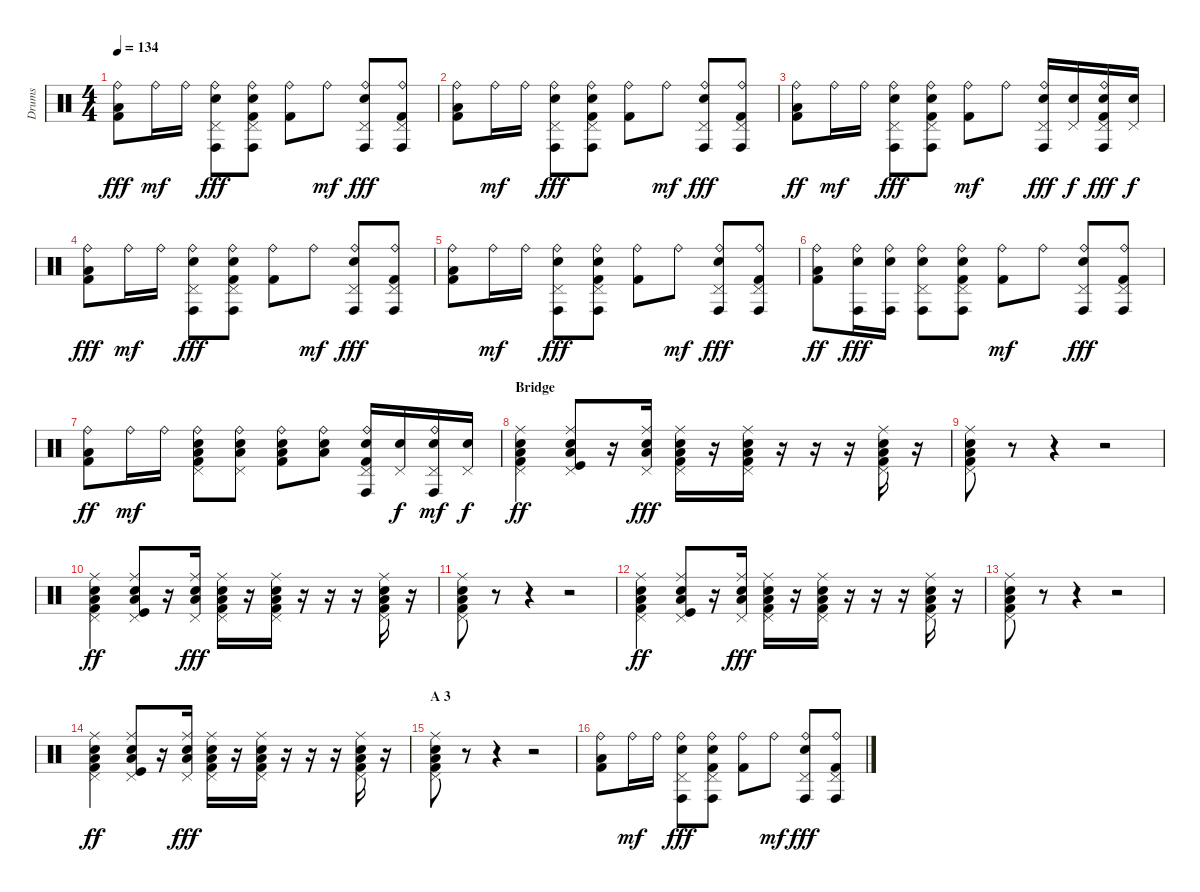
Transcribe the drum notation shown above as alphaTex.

\track ("Drums" "Drums") {instrument percussion}
\staff {score}
\articulation defaults
\ts (4 4)
\tempo 134
\clef neutral
\ks c
("Ride (bell)" "Low Tom (hit)" "Kick (hit) 2").8{dy fff} "Ride (bell)".16{dy mf} "Ride (bell)".16 ("Ride (bell)" "Pedal Hi-Hat (hit)" "Conga high (hit)" "Electric Snare (hit)").8{dy fff} ("Ride (bell)" "Pedal Hi-Hat (hit)" "Conga high (hit)" "Electric Snare (hit)" "Kick (hit) 2").8 ("Ride (bell)" "Kick (hit) 2").8 "Ride (bell)".8{dy mf} ("Ride (bell)" "Pedal Hi-Hat (hit)" "Conga high (hit)" "Electric Snare (hit)").8{dy fff} ("Ride (bell)" "Pedal Hi-Hat (hit)" "Conga high (hit)" "Kick (hit) 2").8 |
("Ride (bell)" "Low Tom (hit)" "Kick (hit) 2").8 "Ride (bell)".16{dy mf} "Ride (bell)".16 ("Ride (bell)" "Pedal Hi-Hat (hit)" "Conga high (hit)" "Electric Snare (hit)").8{dy fff} ("Ride (bell)" "Pedal Hi-Hat (hit)" "Conga high (hit)" "Electric Snare (hit)" "Kick (hit) 2").8 ("Ride (bell)" "Kick (hit) 2").8 "Ride (bell)".8{dy mf} ("Ride (bell)" "Pedal Hi-Hat (hit)" "Conga high (hit)" "Electric Snare (hit)").8{dy fff} ("Ride (bell)" "Pedal Hi-Hat (hit)" "Conga high (hit)" "Kick (hit) 2").8 |
("Ride (bell)" "Low Tom (hit)" "Kick (hit) 2").8{dy ff} "Ride (bell)".16{dy mf} "Ride (bell)".16 ("Ride (bell)" "Pedal Hi-Hat (hit)" "Conga high (hit)" "Electric Snare (hit)").8{dy fff} ("Ride (bell)" "Pedal Hi-Hat (hit)" "Conga high (hit)" "Electric Snare (hit)" "Kick (hit) 2").8 ("Ride (bell)" "Kick (hit) 2").8{dy mf} "Ride (bell)".8 ("Ride (bell)" "Pedal Hi-Hat (hit)" "Conga high (hit)" "Electric Snare (hit)").16{dy fff} ("Pedal Hi-Hat (hit)" "Electric Snare (hit)").16{dy f} ("Ride (bell)" "Pedal Hi-Hat (hit)" "Conga high (hit)" "Electric Snare (hit)" "Kick (hit) 2").16{dy fff} ("Pedal Hi-Hat (hit)" "Electric Snare (hit)").16{dy f} |
("Ride (bell)" "Low Tom (hit)" "Kick (hit) 2").8{dy fff} "Ride (bell)".16{dy mf} "Ride (bell)".16 ("Ride (bell)" "Pedal Hi-Hat (hit)" "Conga high (hit)" "Electric Snare (hit)").8{dy fff} ("Ride (bell)" "Pedal Hi-Hat (hit)" "Conga high (hit)" "Electric Snare (hit)" "Kick (hit) 2").8 ("Ride (bell)" "Kick (hit) 2").8 "Ride (bell)".8{dy mf} ("Ride (bell)" "Pedal Hi-Hat (hit)" "Conga high (hit)" "Electric Snare (hit)").8{dy fff} ("Ride (bell)" "Pedal Hi-Hat (hit)" "Conga high (hit)" "Kick (hit) 2").8 |
("Ride (bell)" "Low Tom (hit)" "Kick (hit) 2").8 "Ride (bell)".16{dy mf} "Ride (bell)".16 ("Ride (bell)" "Pedal Hi-Hat (hit)" "Conga high (hit)" "Electric Snare (hit)").8{dy fff} ("Ride (bell)" "Pedal Hi-Hat (hit)" "Conga high (hit)" "Electric Snare (hit)" "Kick (hit) 2").8 ("Ride (bell)" "Kick (hit) 2").8 "Ride (bell)".8{dy mf} ("Ride (bell)" "Pedal Hi-Hat (hit)" "Conga high (hit)" "Electric Snare (hit)").8{dy fff} ("Ride (bell)" "Pedal Hi-Hat (hit)" "Conga high (hit)" "Kick (hit) 2").8 |
("Ride (bell)" "Low Tom (hit)" "Kick (hit) 2").8{dy ff} ("Ride (bell)" "Conga high (hit)" "Electric Snare (hit)").16{dy fff} ("Ride (bell)" "Conga high (hit)" "Electric Snare (hit)").16 ("Ride (bell)" "Pedal Hi-Hat (hit)" "Conga high (hit)" "Electric Snare (hit)").8 ("Ride (bell)" "Pedal Hi-Hat (hit)" "Conga high (hit)" "Electric Snare (hit)" "Kick (hit) 2").8 ("Ride (bell)" "Kick (hit) 2").8{dy mf} "Ride (bell)".8 ("Ride (bell)" "Pedal Hi-Hat (hit)" "Conga high (hit)" "Electric Snare (hit)").8{dy fff} ("Ride (bell)" "Pedal Hi-Hat (hit)" "Conga high (hit)" "Kick (hit) 2").8 |
("Ride (bell)" "Low Tom (hit)" "Kick (hit) 2").8{dy ff} "Ride (bell)".16{dy mf} "Ride (bell)".16 ("Ride (bell)" "Pedal Hi-Hat (hit)" "Low Floor Tom (hit)" "Electric Snare (hit)" "Kick (hit) 2").8 ("Ride (bell)" "Pedal Hi-Hat (hit)" "Low Floor Tom (hit)" "Electric Snare (hit)").8 ("Ride (bell)" "Low Floor Tom (hit)" "Electric Snare (hit)" "Kick (hit) 2").8 ("Ride (bell)" "Low Floor Tom (hit)" "Electric Snare (hit)").8 ("Ride (bell)" "Pedal Hi-Hat (hit)" "Conga high (hit)" "Electric Snare (hit)" "Kick (hit) 2").16 ("Pedal Hi-Hat (hit)" "Electric Snare (hit)").16{dy f} ("Ride (bell)" "Pedal Hi-Hat (hit)" "Conga high (hit)" "Electric Snare (hit)").16{dy mf} ("Pedal Hi-Hat (hit)" "Electric Snare (hit)").16{dy f} |
\section ("" "Bridge")
("Ride (middle)" "Pedal Hi-Hat (hit)" "Low Floor Tom (hit)" "Electric Snare (hit)" "Kick (hit) 2").4{dy ff} ("Ride (middle)" "Pedal Hi-Hat (hit)" "Low Floor Tom (hit)" "Electric Snare (hit)" "Kick (hit)").8 r.16 ("Ride (middle)" "Pedal Hi-Hat (hit)" "Low Floor Tom (hit)" "Electric Snare (hit)").16{dy fff} ("Ride (middle)" "Pedal Hi-Hat (hit)" "Low Floor Tom (hit)" "Electric Snare (hit)" "Kick (hit) 2").16 r.16 ("Ride (middle)" "Pedal Hi-Hat (hit)" "Low Floor Tom (hit)" "Electric Snare (hit)" "Kick (hit) 2").16 r.16 r.16 r.16 ("Ride (middle)" "Pedal Hi-Hat (hit)" "Low Floor Tom (hit)" "Electric Snare (hit)" "Kick (hit) 2").16 r.16 |
("Ride (middle)" "Pedal Hi-Hat (hit)" "Low Floor Tom (hit)" "Electric Snare (hit)" "Kick (hit) 2").8 r.8 r.4 r.2 |
("Ride (middle)" "Pedal Hi-Hat (hit)" "Low Floor Tom (hit)" "Electric Snare (hit)" "Kick (hit) 2").4{dy ff} ("Ride (middle)" "Pedal Hi-Hat (hit)" "Low Floor Tom (hit)" "Electric Snare (hit)" "Kick (hit)").8 r.16 ("Ride (middle)" "Pedal Hi-Hat (hit)" "Low Floor Tom (hit)" "Electric Snare (hit)").16{dy fff} ("Ride (middle)" "Pedal Hi-Hat (hit)" "Low Floor Tom (hit)" "Electric Snare (hit)" "Kick (hit) 2").16 r.16 ("Ride (middle)" "Pedal Hi-Hat (hit)" "Low Floor Tom (hit)" "Electric Snare (hit)" "Kick (hit) 2").16 r.16 r.16 r.16 ("Ride (middle)" "Pedal Hi-Hat (hit)" "Low Floor Tom (hit)" "Electric Snare (hit)" "Kick (hit) 2").16 r.16 |
("Ride (middle)" "Pedal Hi-Hat (hit)" "Low Floor Tom (hit)" "Electric Snare (hit)" "Kick (hit) 2").8 r.8 r.4 r.2 |
("Ride (middle)" "Pedal Hi-Hat (hit)" "Low Floor Tom (hit)" "Electric Snare (hit)" "Kick (hit) 2").4{dy ff} ("Ride (middle)" "Pedal Hi-Hat (hit)" "Low Floor Tom (hit)" "Electric Snare (hit)" "Kick (hit)").8 r.16 ("Ride (middle)" "Pedal Hi-Hat (hit)" "Low Floor Tom (hit)" "Electric Snare (hit)").16{dy fff} ("Ride (middle)" "Pedal Hi-Hat (hit)" "Low Floor Tom (hit)" "Electric Snare (hit)" "Kick (hit) 2").16 r.16 ("Ride (middle)" "Pedal Hi-Hat (hit)" "Low Floor Tom (hit)" "Electric Snare (hit)" "Kick (hit) 2").16 r.16 r.16 r.16 ("Ride (middle)" "Pedal Hi-Hat (hit)" "Low Floor Tom (hit)" "Electric Snare (hit)" "Kick (hit) 2").16 r.16 |
("Ride (middle)" "Pedal Hi-Hat (hit)" "Low Floor Tom (hit)" "Electric Snare (hit)" "Kick (hit) 2").8 r.8 r.4 r.2 |
("Ride (middle)" "Pedal Hi-Hat (hit)" "Low Floor Tom (hit)" "Electric Snare (hit)" "Kick (hit) 2").4{dy ff} ("Ride (middle)" "Pedal Hi-Hat (hit)" "Low Floor Tom (hit)" "Electric Snare (hit)" "Kick (hit)").8 r.16 ("Ride (middle)" "Pedal Hi-Hat (hit)" "Low Floor Tom (hit)" "Electric Snare (hit)").16{dy fff} ("Ride (middle)" "Pedal Hi-Hat (hit)" "Low Floor Tom (hit)" "Electric Snare (hit)" "Kick (hit) 2").16 r.16 ("Ride (middle)" "Pedal Hi-Hat (hit)" "Low Floor Tom (hit)" "Electric Snare (hit)" "Kick (hit) 2").16 r.16 r.16 r.16 ("Ride (middle)" "Pedal Hi-Hat (hit)" "Low Floor Tom (hit)" "Electric Snare (hit)" "Kick (hit) 2").16 r.16 |
\section ("" "A 3")
("Ride (middle)" "Pedal Hi-Hat (hit)" "Low Floor Tom (hit)" "Electric Snare (hit)" "Kick (hit) 2").8 r.8 r.4 r.2 |
("Ride (bell)" "Low Tom (hit)" "Kick (hit) 2").8 "Ride (bell)".16{dy mf} "Ride (bell)".16 ("Ride (bell)" "Pedal Hi-Hat (hit)" "Conga high (hit)" "Electric Snare (hit)").8{dy fff} ("Ride (bell)" "Pedal Hi-Hat (hit)" "Conga high (hit)" "Electric Snare (hit)" "Kick (hit) 2").8 ("Ride (bell)" "Kick (hit) 2").8 "Ride (bell)".8{dy mf} ("Ride (bell)" "Pedal Hi-Hat (hit)" "Conga high (hit)" "Electric Snare (hit)").8{dy fff} ("Ride (bell)" "Pedal Hi-Hat (hit)" "Conga high (hit)" "Kick (hit) 2").8
